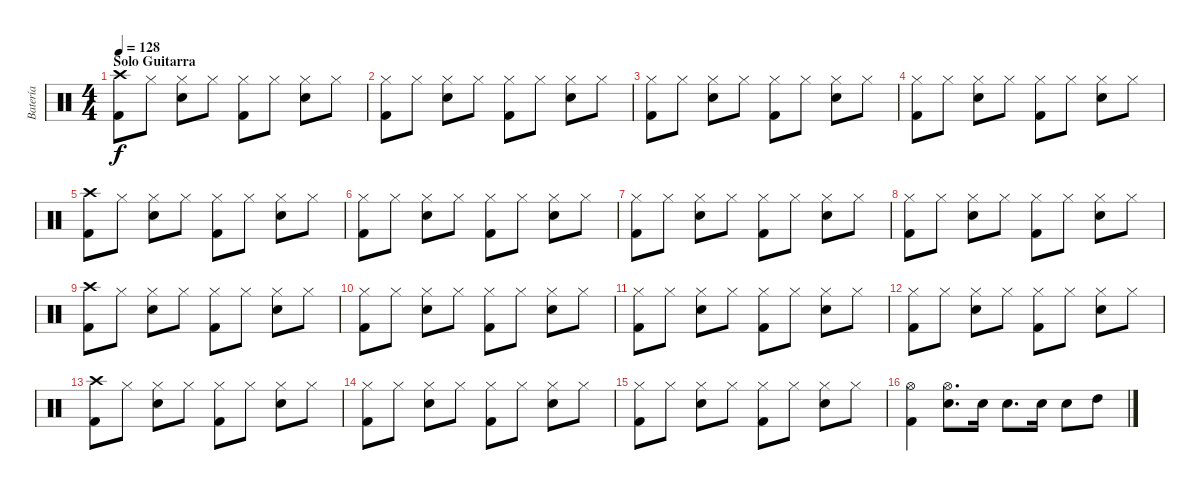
\track ("Batería" "Batería") {instrument percussion}
\staff {score}
\articulation defaults
\ts (4 4)
\section ("" "Solo Guitarra")
\tempo 128
\clef neutral
\ks c
("Crash high (hit)" "Kick (hit) 2").8{dy f} "Hi-Hat (closed)".8 ("Hi-Hat (closed)" "Electric Snare (hit)").8 "Hi-Hat (closed)".8 ("Hi-Hat (closed)" "Kick (hit) 2").8 "Hi-Hat (closed)".8 ("Hi-Hat (closed)" "Electric Snare (hit)").8 "Hi-Hat (closed)".8 |
("Hi-Hat (closed)" "Kick (hit) 2").8 "Hi-Hat (closed)".8 ("Hi-Hat (closed)" "Electric Snare (hit)").8 "Hi-Hat (closed)".8 ("Hi-Hat (closed)" "Kick (hit) 2").8 "Hi-Hat (closed)".8 ("Hi-Hat (closed)" "Electric Snare (hit)").8 "Hi-Hat (closed)".8 |
("Hi-Hat (closed)" "Kick (hit) 2").8 "Hi-Hat (closed)".8 ("Hi-Hat (closed)" "Electric Snare (hit)").8 "Hi-Hat (closed)".8 ("Hi-Hat (closed)" "Kick (hit) 2").8 "Hi-Hat (closed)".8 ("Hi-Hat (closed)" "Electric Snare (hit)").8 "Hi-Hat (closed)".8 |
("Hi-Hat (closed)" "Kick (hit) 2").8 "Hi-Hat (closed)".8 ("Hi-Hat (closed)" "Electric Snare (hit)").8 "Hi-Hat (closed)".8 ("Hi-Hat (closed)" "Kick (hit) 2").8 "Hi-Hat (closed)".8 ("Hi-Hat (closed)" "Electric Snare (hit)").8 "Hi-Hat (closed)".8 |
("Crash high (hit)" "Kick (hit) 2").8 "Hi-Hat (closed)".8 ("Hi-Hat (closed)" "Electric Snare (hit)").8 "Hi-Hat (closed)".8 ("Hi-Hat (closed)" "Kick (hit) 2").8 "Hi-Hat (closed)".8 ("Hi-Hat (closed)" "Electric Snare (hit)").8 "Hi-Hat (closed)".8 |
("Hi-Hat (closed)" "Kick (hit) 2").8 "Hi-Hat (closed)".8 ("Hi-Hat (closed)" "Electric Snare (hit)").8 "Hi-Hat (closed)".8 ("Hi-Hat (closed)" "Kick (hit) 2").8 "Hi-Hat (closed)".8 ("Hi-Hat (closed)" "Electric Snare (hit)").8 "Hi-Hat (closed)".8 |
("Hi-Hat (closed)" "Kick (hit) 2").8 "Hi-Hat (closed)".8 ("Hi-Hat (closed)" "Electric Snare (hit)").8 "Hi-Hat (closed)".8 ("Hi-Hat (closed)" "Kick (hit) 2").8 "Hi-Hat (closed)".8 ("Hi-Hat (closed)" "Electric Snare (hit)").8 "Hi-Hat (closed)".8 |
("Hi-Hat (closed)" "Kick (hit) 2").8 "Hi-Hat (closed)".8 ("Hi-Hat (closed)" "Electric Snare (hit)").8 "Hi-Hat (closed)".8 ("Hi-Hat (closed)" "Kick (hit) 2").8 "Hi-Hat (closed)".8 ("Hi-Hat (closed)" "Electric Snare (hit)").8 "Hi-Hat (closed)".8 |
("Crash high (hit)" "Kick (hit) 2").8 "Hi-Hat (closed)".8 ("Hi-Hat (closed)" "Electric Snare (hit)").8 "Hi-Hat (closed)".8 ("Hi-Hat (closed)" "Kick (hit) 2").8 "Hi-Hat (closed)".8 ("Hi-Hat (closed)" "Electric Snare (hit)").8 "Hi-Hat (closed)".8 |
("Hi-Hat (closed)" "Kick (hit) 2").8 "Hi-Hat (closed)".8 ("Hi-Hat (closed)" "Electric Snare (hit)").8 "Hi-Hat (closed)".8 ("Hi-Hat (closed)" "Kick (hit) 2").8 "Hi-Hat (closed)".8 ("Hi-Hat (closed)" "Electric Snare (hit)").8 "Hi-Hat (closed)".8 |
("Hi-Hat (closed)" "Kick (hit) 2").8 "Hi-Hat (closed)".8 ("Hi-Hat (closed)" "Electric Snare (hit)").8 "Hi-Hat (closed)".8 ("Hi-Hat (closed)" "Kick (hit) 2").8 "Hi-Hat (closed)".8 ("Hi-Hat (closed)" "Electric Snare (hit)").8 "Hi-Hat (closed)".8 |
("Hi-Hat (closed)" "Kick (hit) 2").8 "Hi-Hat (closed)".8 ("Hi-Hat (closed)" "Electric Snare (hit)").8 "Hi-Hat (closed)".8 ("Hi-Hat (closed)" "Kick (hit) 2").8 "Hi-Hat (closed)".8 ("Hi-Hat (closed)" "Electric Snare (hit)").8 "Hi-Hat (closed)".8 |
("Crash high (hit)" "Kick (hit) 2").8 "Hi-Hat (closed)".8 ("Hi-Hat (closed)" "Electric Snare (hit)").8 "Hi-Hat (closed)".8 ("Hi-Hat (closed)" "Kick (hit) 2").8 "Hi-Hat (closed)".8 ("Hi-Hat (closed)" "Electric Snare (hit)").8 "Hi-Hat (closed)".8 |
("Hi-Hat (closed)" "Kick (hit) 2").8 "Hi-Hat (closed)".8 ("Hi-Hat (closed)" "Electric Snare (hit)").8 "Hi-Hat (closed)".8 ("Hi-Hat (closed)" "Kick (hit) 2").8 "Hi-Hat (closed)".8 ("Hi-Hat (closed)" "Electric Snare (hit)").8 "Hi-Hat (closed)".8 |
("Hi-Hat (closed)" "Kick (hit) 2").8 "Hi-Hat (closed)".8 ("Hi-Hat (closed)" "Electric Snare (hit)").8 "Hi-Hat (closed)".8 ("Hi-Hat (closed)" "Kick (hit) 2").8 "Hi-Hat (closed)".8 ("Hi-Hat (closed)" "Electric Snare (hit)").8 "Hi-Hat (closed)".8 |
("Hi-Hat (open)" "Kick (hit) 2").4 ("Hi-Hat (open)" "Electric Snare (hit)").8{d} "Electric Snare (hit)".16 "Electric Snare (hit)".8{d} "Electric Snare (hit)".16 "Electric Snare (hit)".8 "High Tom (hit)".8
